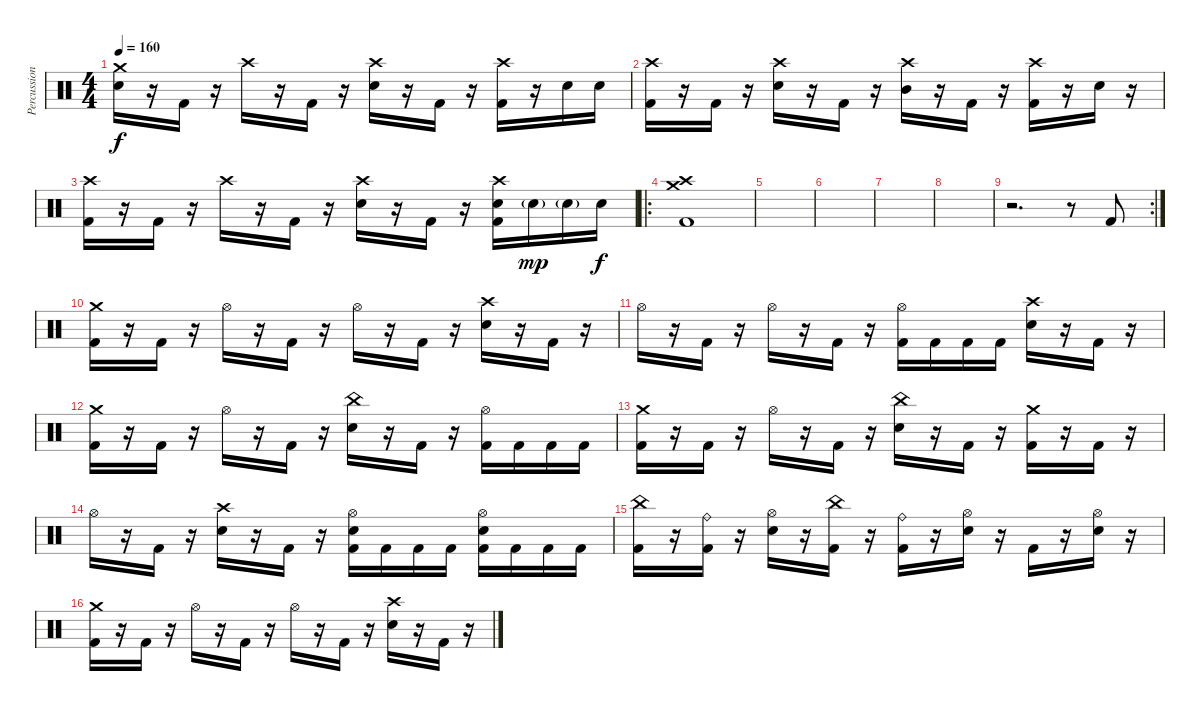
\track ("Percussion" "Percussion") {instrument percussion}
\staff {score}
\articulation defaults
\ts (4 4)
\tempo 160
\clef neutral
\ks c
("Crash medium (hit)" "Electric Snare (hit)").16{dy f} r.16 "Kick (hit) 2".16 r.16 "Crash high (hit)".16 r.16 "Kick (hit) 2".16 r.16 ("Crash high (hit)" "Electric Snare (hit)").16 r.16 "Kick (hit) 2".16 r.16 ("Crash high (hit)" "Kick (hit) 2").16 r.16 "Electric Snare (hit)".16 "Electric Snare (hit)".16 |
("Crash high (hit)" "Kick (hit) 2").16 r.16 "Kick (hit) 2".16 r.16 ("Crash high (hit)" "Electric Snare (hit)").16 r.16 "Kick (hit) 2".16 r.16 ("Crash high (hit)" "Mid Tom (hit)").16 r.16 "Kick (hit) 2".16 r.16 ("Crash high (hit)" "Kick (hit) 2").16 r.16 "Electric Snare (hit)".16 r.16 |
("Crash high (hit)" "Kick (hit) 2").16 r.16 "Kick (hit) 2".16 r.16 "Crash high (hit)".16 r.16 "Kick (hit) 2".16 r.16 ("Crash high (hit)" "Electric Snare (hit)").16 r.16 "Kick (hit) 2".16 r.16 ("Crash high (hit)" "Electric Snare (hit)" "Kick (hit) 2").16 "Electric Snare (hit)"{g}.16{dy mp} "Electric Snare (hit)"{g}.16 "Electric Snare (hit)".16{dy f} |
\ro
("Crash medium (hit)" "Crash high (hit)" "Kick (hit) 2").1 |
|
|
|
|
\rc 2
r.2{d} r.8 "Kick (hit) 2".8 |
("Crash medium (hit)" "Kick (hit) 2").16 r.16 "Kick (hit) 2".16 r.16 "Hi-Hat (open)".16 r.16 "Kick (hit) 2".16 r.16 "Hi-Hat (open)".16 r.16 "Kick (hit) 2".16 r.16 ("Crash high (hit)" "Electric Snare (hit)").16 r.16 "Kick (hit) 2".16 r.16 |
"Hi-Hat (open)".16 r.16 "Kick (hit) 2".16 r.16 "Hi-Hat (open)".16 r.16 "Kick (hit) 2".16 r.16 ("Hi-Hat (open)" "Kick (hit) 2").16 "Kick (hit) 2".16 "Kick (hit) 2".16 "Kick (hit) 2".16 ("Crash high (hit)" "Electric Snare (hit)").16 r.16 "Kick (hit) 2".16 r.16 |
("Crash medium (hit)" "Kick (hit) 2").16 r.16 "Kick (hit) 2".16 r.16 "Hi-Hat (open)".16 r.16 "Kick (hit) 2".16 r.16 ("China (hit)" "Electric Snare (hit)").16 r.16 "Kick (hit) 2".16 r.16 ("Hi-Hat (open)" "Kick (hit) 2").16 "Kick (hit) 2".16 "Kick (hit) 2".16 "Kick (hit) 2".16 |
("Crash medium (hit)" "Kick (hit) 2").16 r.16 "Kick (hit) 2".16 r.16 "Hi-Hat (open)".16 r.16 "Kick (hit) 2".16 r.16 ("China (hit)" "Electric Snare (hit)").16 r.16 "Kick (hit) 2".16 r.16 ("Crash medium (hit)" "Kick (hit) 2").16 r.16 "Kick (hit) 2".16 r.16 |
"Hi-Hat (open)".16 r.16 "Kick (hit) 2".16 r.16 ("Crash high (hit)" "Electric Snare (hit)").16 r.16 "Kick (hit) 2".16 r.16 ("Hi-Hat (open)" "Electric Snare (hit)" "Kick (hit) 2").16 "Kick (hit) 2".16 "Kick (hit) 2".16 "Kick (hit) 2".16 ("Hi-Hat (open)" "Electric Snare (hit)" "Kick (hit) 2").16 "Kick (hit) 2".16 "Kick (hit) 2".16 "Kick (hit) 2".16 |
("China (hit)" "Kick (hit) 2").16 r.16 ("Ride (bell)" "Kick (hit) 2").16 r.16 ("Hi-Hat (open)" "Electric Snare (hit)").16 r.16 ("China (hit)" "Kick (hit) 2").16 r.16 ("Ride (bell)" "Kick (hit) 2").16 r.16 ("Hi-Hat (open)" "Electric Snare (hit)").16 r.16 "Kick (hit) 2".16 r.16 ("Hi-Hat (open)" "Electric Snare (hit)").16 r.16 |
("Crash medium (hit)" "Kick (hit) 2").16 r.16 "Kick (hit) 2".16 r.16 "Hi-Hat (open)".16 r.16 "Kick (hit) 2".16 r.16 "Hi-Hat (open)".16 r.16 "Kick (hit) 2".16 r.16 ("Crash high (hit)" "Electric Snare (hit)").16 r.16 "Kick (hit) 2".16 r.16
